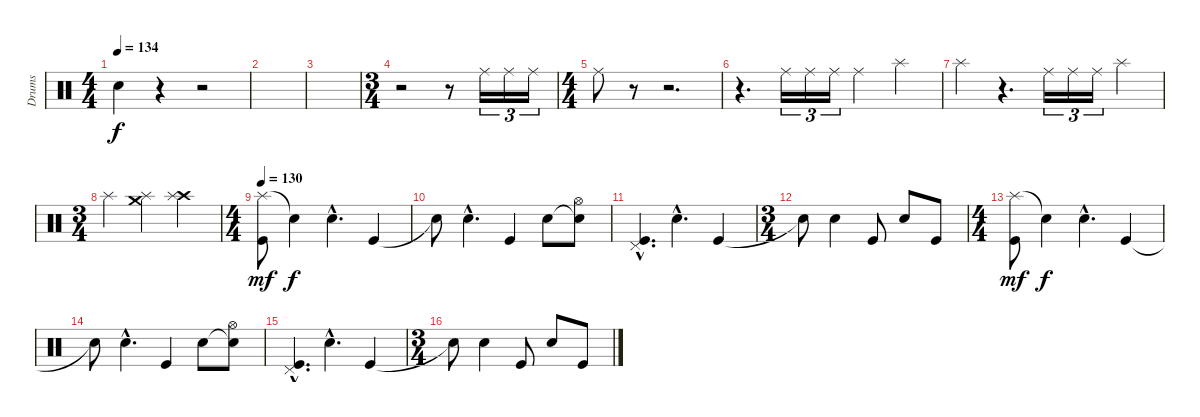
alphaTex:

\track ("Drums" "Drums") {instrument percussion}
\staff {score}
\articulation defaults
\ts (4 4)
\tempo 134
\clef neutral
\ks c "Electric Snare (hit)".4{dy f volume 15}
r.4 r.2 |
|
|
\ts (3 4)
r.2 r.8 "Ride (middle)".16{tu (3 2)} "Ride (middle)".16{tu (3 2)} "Ride (middle)".16{tu (3 2)} |
\ts (4 4)
"Ride (middle)".8 r.8 r.2{d} |
r.4{d} "Ride (middle)".16{tu (3 2)} "Ride (middle)".16{tu (3 2)} "Ride (middle)".16{tu (3 2)} "Ride (middle)".4 "Splash (hit)".4{balance 11} |
"Splash (hit)".4{balance 5} r.4{d balance 8} "Ride (middle)".16{tu (3 2)} "Ride (middle)".16{tu (3 2)} "Ride (middle)".16{tu (3 2)} "Splash (hit)".4 |
\ts (3 4)
"Splash (hit)".4{balance 10} ("Crash medium (hit)" "Splash (hit)").4{balance 6} ("Crash high (hit)" "Splash (hit)").4{balance 8} |
\ts (4 4)
\tempo 130
("Splash (hit)" "Kick (hit)").8{dy mf} "Snare (hit)"{t}.4{dy f} "Electric Snare (hit)"{hac}.4{d} "Kick (hit)".4 |
"Snare (hit)"{t}.8 "Electric Snare (hit)"{hac}.4{d} "Kick (hit)".4 "Electric Snare (hit)".8 ("Snare (hit)"{t} "Hi-Hat (open)").8 |
("Pedal Hi-Hat (hit)"{hac} "Kick (hit)"{hac}).4{d} "Electric Snare (hit)"{hac}.4{d} "Kick (hit)".4 |
\ts (3 4)
"Snare (hit)"{t}.8 "Electric Snare (hit)".4 "Kick (hit)".8 "Electric Snare (hit)".8 "Kick (hit)".8 |
\ts (4 4)
("Splash (hit)" "Kick (hit)").8{dy mf} "Snare (hit)"{t}.4{dy f} "Electric Snare (hit)"{hac}.4{d} "Kick (hit)".4 |
"Snare (hit)"{t}.8 "Electric Snare (hit)"{hac}.4{d} "Kick (hit)".4 "Electric Snare (hit)".8 ("Snare (hit)"{t} "Hi-Hat (open)").8 |
("Pedal Hi-Hat (hit)"{hac} "Kick (hit)"{hac}).4{d} "Electric Snare (hit)"{hac}.4{d} "Kick (hit)".4 |
\ts (3 4)
"Snare (hit)"{t}.8 "Electric Snare (hit)".4 "Kick (hit)".8 "Electric Snare (hit)".8 "Kick (hit)".8
